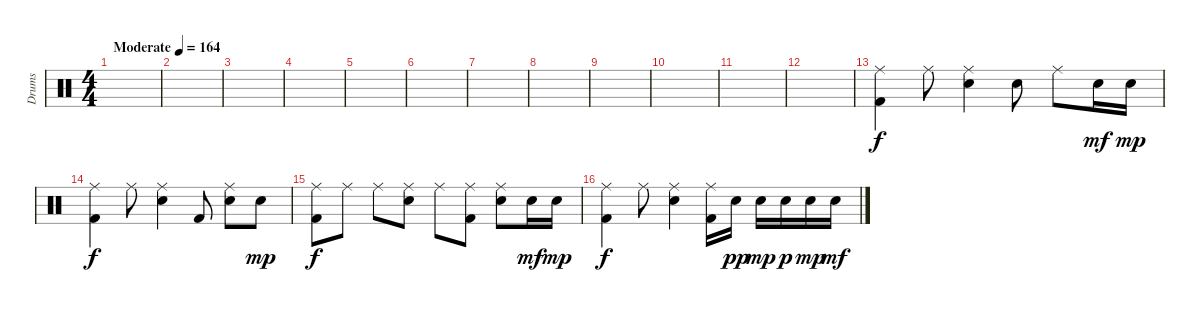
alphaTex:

\track ("Drums" "Drums") {instrument percussion}
\staff {score}
\articulation defaults
\ts (4 4)
\tempo (164 "Moderate")
\clef neutral
\ks c
|
|
|
|
|
|
|
|
|
|
|
|
("Ride (middle)" "Kick (hit) 2").4 "Ride (middle)".8 ("Ride (middle)" "Electric Snare (hit)").4 "Electric Snare (hit)".8 "Ride (middle)".8 "Electric Snare (hit)".16{dy mf} "Electric Snare (hit)".16{dy mp} |
("Ride (middle)" "Kick (hit) 2").4{dy f} "Ride (middle)".8 ("Ride (middle)" "Electric Snare (hit)").4 "Kick (hit) 2".8 ("Ride (middle)" "Electric Snare (hit)").8 "Electric Snare (hit)".8{dy mp} |
("Ride (middle)" "Kick (hit) 2").8{dy f} "Ride (middle)".8 "Ride (middle)".8 ("Ride (middle)" "Electric Snare (hit)").8 "Ride (middle)".8 ("Ride (middle)" "Kick (hit) 2").8 ("Ride (middle)" "Electric Snare (hit)").8 "Electric Snare (hit)".16{dy mf} "Electric Snare (hit)".16{dy mp} |
("Ride (middle)" "Kick (hit) 2").4{dy f} "Ride (middle)".8 ("Ride (middle)" "Electric Snare (hit)").4 ("Ride (middle)" "Kick (hit) 2").16 "Electric Snare (hit)".16{dy pp} "Electric Snare (hit)".16{dy mp} "Electric Snare (hit)".16{dy p} "Electric Snare (hit)".16{dy mp} "Electric Snare (hit)".16{dy mf}
